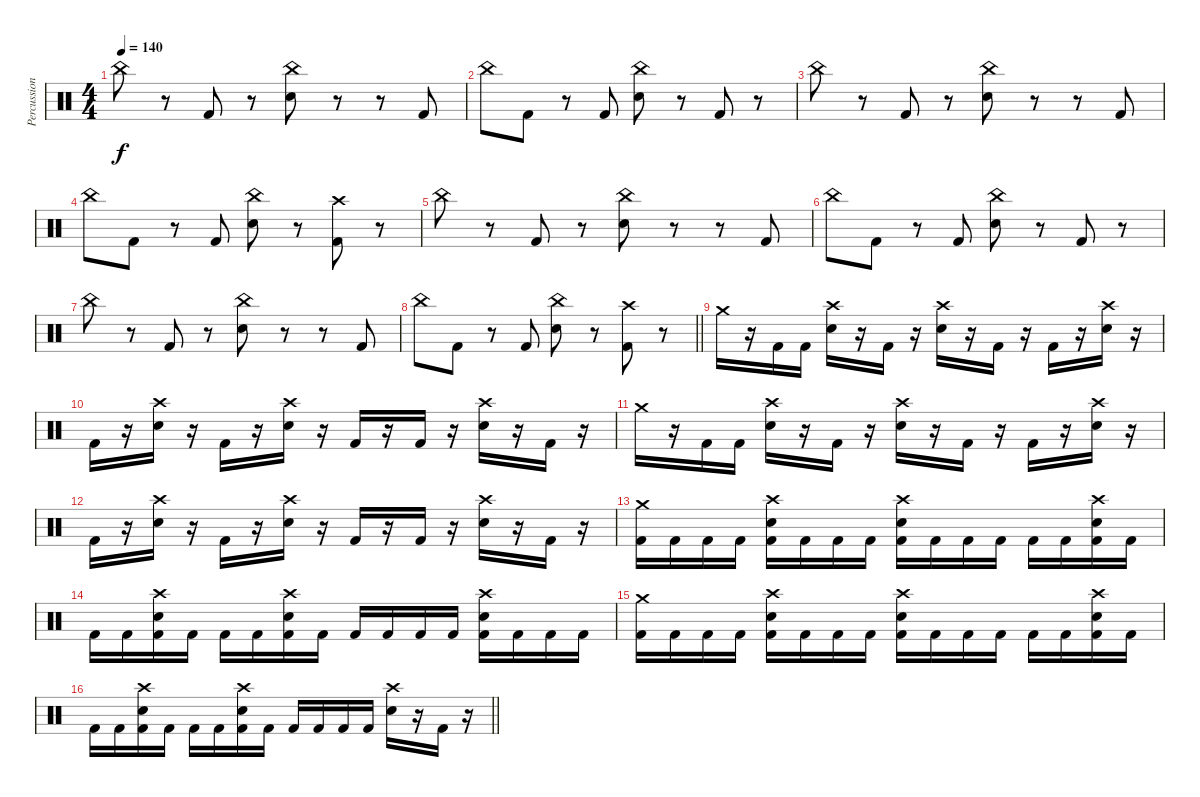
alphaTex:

\track ("Percussion" "Percussion") {instrument percussion}
\staff {score}
\articulation defaults
\ts (4 4)
\section ("" "")
\tempo 140
\clef neutral
\ks c "China (hit)".8{dy f}
r.8 "Kick (hit) 2".8 r.8 ("China (hit)" "Snare (hit) 2").8 r.8 r.8 "Kick (hit) 2".8 |
"China (hit)".8 "Kick (hit) 2".8 r.8 "Kick (hit) 2".8 ("China (hit)" "Snare (hit) 2").8 r.8 "Kick (hit) 2".8 r.8 |
"China (hit)".8 r.8 "Kick (hit) 2".8 r.8 ("China (hit)" "Snare (hit) 2").8 r.8 r.8 "Kick (hit) 2".8 |
"China (hit)".8 "Kick (hit) 2".8 r.8 "Kick (hit) 2".8 ("China (hit)" "Snare (hit) 2").8 r.8 ("Crash high (hit)" "Kick (hit) 2").8 r.8 |
"China (hit)".8 r.8 "Kick (hit) 2".8 r.8 ("China (hit)" "Snare (hit) 2").8 r.8 r.8 "Kick (hit) 2".8 |
"China (hit)".8 "Kick (hit) 2".8 r.8 "Kick (hit) 2".8 ("China (hit)" "Snare (hit) 2").8 r.8 "Kick (hit) 2".8 r.8 |
"China (hit)".8 r.8 "Kick (hit) 2".8 r.8 ("China (hit)" "Snare (hit) 2").8 r.8 r.8 "Kick (hit) 2".8 |
\barLineRight lightlight "China (hit)".8 "Kick (hit) 2".8
r.8 "Kick (hit) 2".8 ("China (hit)" "Snare (hit) 2").8 r.8 ("Crash high (hit)" "Kick (hit) 2").8 r.8 |
\section ("" "")
"Crash medium (hit)".16 r.16 "Kick (hit) 2".16 "Kick (hit) 2".16 ("Crash high (hit)" "Snare (hit) 2").16 r.16 "Kick (hit) 2".16 r.16 ("Crash high (hit)" "Snare (hit) 2").16 r.16 "Kick (hit) 2".16 r.16 "Kick (hit) 2".16 r.16 ("Crash high (hit)" "Snare (hit) 2").16 r.16 |
"Kick (hit) 2".16 r.16 ("Crash high (hit)" "Snare (hit) 2").16 r.16 "Kick (hit) 2".16 r.16 ("Crash high (hit)" "Snare (hit) 2").16 r.16 "Kick (hit) 2".16 r.16 "Kick (hit) 2".16 r.16 ("Crash high (hit)" "Snare (hit) 2").16 r.16 "Kick (hit) 2".16 r.16 |
"Crash medium (hit)".16 r.16 "Kick (hit) 2".16 "Kick (hit) 2".16 ("Crash high (hit)" "Snare (hit) 2").16 r.16 "Kick (hit) 2".16 r.16 ("Crash high (hit)" "Snare (hit) 2").16 r.16 "Kick (hit) 2".16 r.16 "Kick (hit) 2".16 r.16 ("Crash high (hit)" "Snare (hit) 2").16 r.16 |
"Kick (hit) 2".16 r.16 ("Crash high (hit)" "Snare (hit) 2").16 r.16 "Kick (hit) 2".16 r.16 ("Crash high (hit)" "Snare (hit) 2").16 r.16 "Kick (hit) 2".16 r.16 "Kick (hit) 2".16 r.16 ("Crash high (hit)" "Snare (hit) 2").16 r.16 "Kick (hit) 2".16 r.16 |
("Crash medium (hit)" "Kick (hit) 2").16 "Kick (hit) 2".16 "Kick (hit) 2".16 "Kick (hit) 2".16 ("Crash high (hit)" "Snare (hit) 2" "Kick (hit) 2").16 "Kick (hit) 2".16 "Kick (hit) 2".16 "Kick (hit) 2".16 ("Crash high (hit)" "Snare (hit) 2" "Kick (hit) 2").16 "Kick (hit) 2".16 "Kick (hit) 2".16 "Kick (hit) 2".16 "Kick (hit) 2".16 "Kick (hit) 2".16 ("Crash high (hit)" "Snare (hit) 2" "Kick (hit) 2").16 "Kick (hit) 2".16 |
"Kick (hit) 2".16 "Kick (hit) 2".16 ("Crash high (hit)" "Snare (hit) 2" "Kick (hit) 2").16 "Kick (hit) 2".16 "Kick (hit) 2".16 "Kick (hit) 2".16 ("Crash high (hit)" "Snare (hit) 2" "Kick (hit) 2").16 "Kick (hit) 2".16 "Kick (hit) 2".16 "Kick (hit) 2".16 "Kick (hit) 2".16 "Kick (hit) 2".16 ("Crash high (hit)" "Snare (hit) 2" "Kick (hit) 2").16 "Kick (hit) 2".16 "Kick (hit) 2".16 "Kick (hit) 2".16 |
("Crash medium (hit)" "Kick (hit) 2").16 "Kick (hit) 2".16 "Kick (hit) 2".16 "Kick (hit) 2".16 ("Crash high (hit)" "Snare (hit) 2" "Kick (hit) 2").16 "Kick (hit) 2".16 "Kick (hit) 2".16 "Kick (hit) 2".16 ("Crash high (hit)" "Snare (hit) 2" "Kick (hit) 2").16 "Kick (hit) 2".16 "Kick (hit) 2".16 "Kick (hit) 2".16 "Kick (hit) 2".16 "Kick (hit) 2".16 ("Crash high (hit)" "Snare (hit) 2" "Kick (hit) 2").16 "Kick (hit) 2".16 |
\barLineRight lightlight "Kick (hit) 2".16 "Kick (hit) 2".16
("Crash high (hit)" "Snare (hit) 2" "Kick (hit) 2").16 "Kick (hit) 2".16 "Kick (hit) 2".16 "Kick (hit) 2".16 ("Crash high (hit)" "Snare (hit) 2" "Kick (hit) 2").16 "Kick (hit) 2".16 "Kick (hit) 2".16 "Kick (hit) 2".16 "Kick (hit) 2".16 "Kick (hit) 2".16 ("Crash high (hit)" "Snare (hit) 2").16 r.16 "Kick (hit) 2".16 r.16
